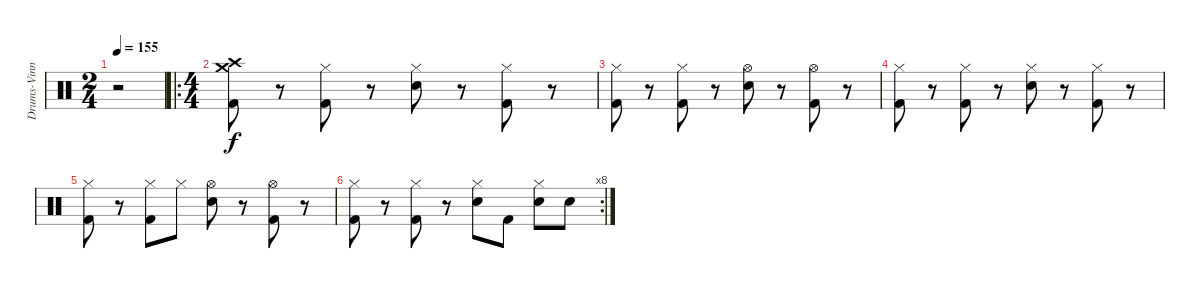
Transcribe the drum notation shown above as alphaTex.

\track ("Drums-Vinny Appice" "Drums-Vinn") {instrument percussion}
\staff {score}
\articulation defaults
\ts (2 4)
\tempo 155
\clef neutral
\ks c
r.2{dy f} |
\ro
\ts (4 4)
("Crash medium (hit)" "Crash high (hit)" "Kick (hit) 2").8 r.8 ("Hi-Hat (closed)" "Kick (hit) 2").8 r.8 ("Hi-Hat (closed)" "Electric Snare (hit)").8 r.8 ("Hi-Hat (closed)" "Kick (hit) 2").8 r.8 |
("Hi-Hat (closed)" "Kick (hit) 2").8 r.8 ("Hi-Hat (closed)" "Kick (hit) 2").8 r.8 ("Hi-Hat (open)" "Electric Snare (hit)").8 r.8 ("Hi-Hat (open)" "Kick (hit) 2").8 r.8 |
("Hi-Hat (closed)" "Kick (hit) 2").8 r.8 ("Hi-Hat (closed)" "Kick (hit) 2").8 r.8 ("Hi-Hat (closed)" "Electric Snare (hit)").8 r.8 ("Hi-Hat (closed)" "Kick (hit) 2").8 r.8 |
("Hi-Hat (closed)" "Kick (hit) 2").8 r.8 ("Hi-Hat (closed)" "Kick (hit) 2").8 "Hi-Hat (closed)".8 ("Hi-Hat (open)" "Electric Snare (hit)").8 r.8 ("Hi-Hat (open)" "Kick (hit) 2").8 r.8 |
\rc 8
("Hi-Hat (closed)" "Kick (hit) 2").8 r.8 ("Hi-Hat (closed)" "Kick (hit) 2").8 r.8 ("Hi-Hat (closed)" "Electric Snare (hit)").8 "Kick (hit) 2".8 ("Hi-Hat (closed)" "Electric Snare (hit)").8 "Electric Snare (hit)".8
